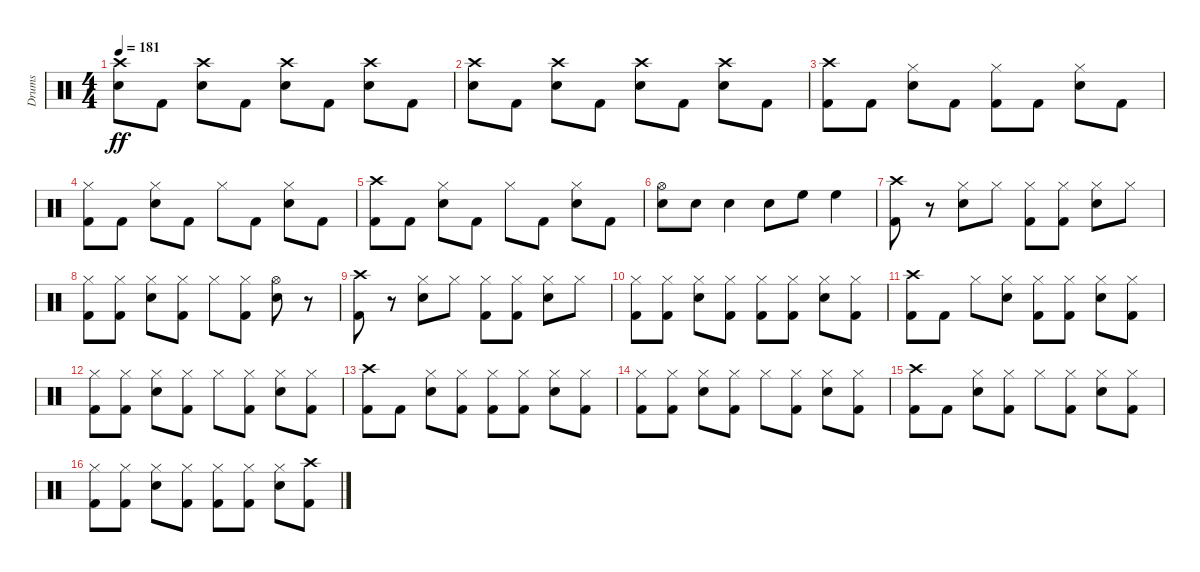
\track ("Drums" "Drums") {instrument percussion}
\staff {score}
\articulation defaults
\ts (4 4)
\tempo 181
\clef neutral
\ks c
("Snare (hit) 2" "Crash high (hit)").8{dy ff} "Kick (hit) 2".8 ("Snare (hit) 2" "Crash high (hit)").8 "Kick (hit) 2".8 ("Snare (hit) 2" "Crash high (hit)").8 "Kick (hit) 2".8 ("Snare (hit) 2" "Crash high (hit)").8 "Kick (hit) 2".8 |
("Snare (hit) 2" "Crash high (hit)").8 "Kick (hit) 2".8 ("Snare (hit) 2" "Crash high (hit)").8 "Kick (hit) 2".8 ("Snare (hit) 2" "Crash high (hit)").8 "Kick (hit) 2".8 ("Snare (hit) 2" "Crash high (hit)").8 "Kick (hit) 2".8 |
("Kick (hit) 2" "Crash high (hit)").8 "Kick (hit) 2".8 ("Snare (hit) 2" "Hi-Hat (closed)").8 "Kick (hit) 2".8 ("Kick (hit) 2" "Hi-Hat (closed)").8 "Kick (hit) 2".8 ("Snare (hit) 2" "Hi-Hat (closed)").8 "Kick (hit) 2".8 |
("Kick (hit) 2" "Hi-Hat (closed)").8 "Kick (hit) 2".8 ("Snare (hit) 2" "Hi-Hat (closed)").8 "Kick (hit) 2".8 "Hi-Hat (closed)".8 "Kick (hit) 2".8 ("Snare (hit) 2" "Hi-Hat (closed)").8 "Kick (hit) 2".8 |
("Kick (hit) 2" "Crash high (hit)").8 "Kick (hit) 2".8 ("Snare (hit) 2" "Hi-Hat (closed)").8 "Kick (hit) 2".8 "Hi-Hat (closed)".8 "Kick (hit) 2".8 ("Snare (hit) 2" "Hi-Hat (closed)").8 "Kick (hit) 2".8 |
("Snare (hit)" "Hi-Hat (open)").8 "Snare (hit) 2".8 "Snare (hit) 2".4 "Snare (hit) 2".8 "High Floor Tom (hit)".8 "High Floor Tom (hit)".4 |
("Kick (hit) 2" "Crash high (hit)").8 r.8 ("Snare (hit) 2" "Hi-Hat (closed)").8 "Hi-Hat (closed)".8 ("Kick (hit) 2" "Hi-Hat (closed)").8 ("Kick (hit) 2" "Hi-Hat (closed)").8 ("Snare (hit) 2" "Hi-Hat (closed)").8 "Hi-Hat (closed)".8 |
("Kick (hit) 2" "Hi-Hat (closed)").8 ("Kick (hit) 2" "Hi-Hat (closed)").8 ("Snare (hit) 2" "Hi-Hat (closed)").8 ("Kick (hit) 2" "Hi-Hat (closed)").8 "Hi-Hat (closed)".8 ("Kick (hit) 2" "Hi-Hat (closed)").8 ("Snare (hit) 2" "Hi-Hat (open)").8 r.8 |
("Kick (hit) 2" "Crash high (hit)").8 r.8 ("Snare (hit) 2" "Hi-Hat (closed)").8 "Hi-Hat (closed)".8 ("Kick (hit) 2" "Hi-Hat (closed)").8 ("Kick (hit) 2" "Hi-Hat (closed)").8 ("Snare (hit) 2" "Hi-Hat (closed)").8 "Hi-Hat (closed)".8 |
("Kick (hit) 2" "Hi-Hat (closed)").8 ("Kick (hit) 2" "Hi-Hat (closed)").8 ("Snare (hit) 2" "Hi-Hat (closed)").8 ("Kick (hit) 2" "Hi-Hat (closed)").8 ("Kick (hit) 2" "Hi-Hat (closed)").8 ("Kick (hit) 2" "Hi-Hat (closed)").8 ("Snare (hit) 2" "Hi-Hat (closed)").8 ("Kick (hit) 2" "Hi-Hat (closed)").8 |
("Kick (hit) 2" "Crash high (hit)").8 "Kick (hit) 2".8 "Hi-Hat (closed)".8 ("Snare (hit) 2" "Hi-Hat (closed)").8 ("Kick (hit) 2" "Hi-Hat (closed)").8 ("Kick (hit) 2" "Hi-Hat (closed)").8 ("Snare (hit) 2" "Hi-Hat (closed)").8 ("Kick (hit) 2" "Hi-Hat (closed)").8 |
("Kick (hit) 2" "Hi-Hat (closed)").8 ("Kick (hit) 2" "Hi-Hat (closed)").8 ("Snare (hit) 2" "Hi-Hat (closed)").8 ("Kick (hit) 2" "Hi-Hat (closed)").8 "Hi-Hat (closed)".8 ("Kick (hit) 2" "Hi-Hat (closed)").8 ("Snare (hit) 2" "Hi-Hat (closed)").8 ("Kick (hit) 2" "Hi-Hat (closed)").8 |
("Kick (hit) 2" "Crash high (hit)").8 "Kick (hit) 2".8 ("Snare (hit) 2" "Hi-Hat (closed)").8 ("Kick (hit) 2" "Hi-Hat (closed)").8 ("Kick (hit) 2" "Hi-Hat (closed)").8 ("Kick (hit) 2" "Hi-Hat (closed)").8 ("Snare (hit) 2" "Hi-Hat (closed)").8 ("Kick (hit) 2" "Hi-Hat (closed)").8 |
("Kick (hit) 2" "Hi-Hat (closed)").8 ("Kick (hit) 2" "Hi-Hat (closed)").8 ("Snare (hit) 2" "Hi-Hat (closed)").8 ("Kick (hit) 2" "Hi-Hat (closed)").8 "Hi-Hat (closed)".8 ("Kick (hit) 2" "Hi-Hat (closed)").8 ("Snare (hit) 2" "Hi-Hat (closed)").8 ("Kick (hit) 2" "Hi-Hat (closed)").8 |
("Kick (hit) 2" "Crash high (hit)").8 "Kick (hit) 2".8 ("Snare (hit) 2" "Hi-Hat (closed)").8 ("Kick (hit) 2" "Hi-Hat (closed)").8 "Hi-Hat (closed)".8 ("Kick (hit) 2" "Hi-Hat (closed)").8 ("Snare (hit) 2" "Hi-Hat (closed)").8 ("Kick (hit) 2" "Hi-Hat (closed)").8 |
("Kick (hit) 2" "Hi-Hat (closed)").8 ("Kick (hit) 2" "Hi-Hat (closed)").8 ("Snare (hit) 2" "Hi-Hat (closed)").8 ("Kick (hit) 2" "Hi-Hat (closed)").8 ("Kick (hit) 2" "Hi-Hat (closed)").8 ("Kick (hit) 2" "Hi-Hat (closed)").8 ("Snare (hit) 2" "Hi-Hat (closed)").8 ("Kick (hit) 2" "Crash high (hit)").8
